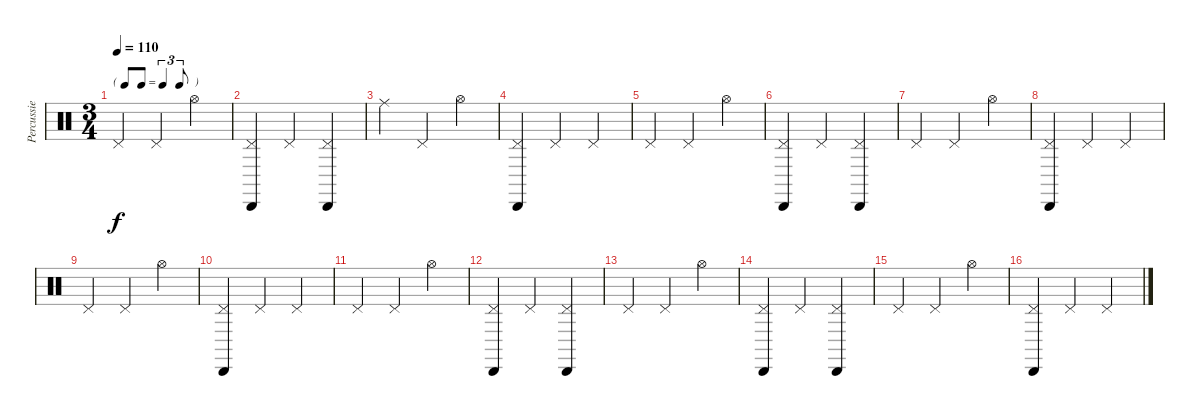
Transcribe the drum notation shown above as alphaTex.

\track ("Percussie" "Percussie") {instrument percussion}
\staff {score}
\articulation defaults
\ts (3 4)
\tf triplet8th
\tempo 110
\clef neutral
\ks c "Pedal Hi-Hat (hit)".4{dy f} "Pedal Hi-Hat (hit)".4 "Hi-Hat (open)".4
|
("Cabasa (hit)" "Pedal Hi-Hat (hit)").4 "Pedal Hi-Hat (hit)".4 ("Cabasa (hit)" "Pedal Hi-Hat (hit)").4 |
"Ride (middle)".4 "Pedal Hi-Hat (hit)".4 "Hi-Hat (open)".4 |
("Cabasa (hit)" "Pedal Hi-Hat (hit)").4 "Pedal Hi-Hat (hit)".4 "Pedal Hi-Hat (hit)".4 |
"Pedal Hi-Hat (hit)".4 "Pedal Hi-Hat (hit)".4 "Hi-Hat (open)".4 |
("Cabasa (hit)" "Pedal Hi-Hat (hit)").4 "Pedal Hi-Hat (hit)".4 ("Cabasa (hit)" "Pedal Hi-Hat (hit)").4 |
"Pedal Hi-Hat (hit)".4 "Pedal Hi-Hat (hit)".4 "Hi-Hat (open)".4 |
("Cabasa (hit)" "Pedal Hi-Hat (hit)").4 "Pedal Hi-Hat (hit)".4 "Pedal Hi-Hat (hit)".4 |
"Pedal Hi-Hat (hit)".4 "Pedal Hi-Hat (hit)".4 "Hi-Hat (open)".4 |
("Cabasa (hit)" "Pedal Hi-Hat (hit)").4 "Pedal Hi-Hat (hit)".4 "Pedal Hi-Hat (hit)".4 |
"Pedal Hi-Hat (hit)".4 "Pedal Hi-Hat (hit)".4 "Hi-Hat (open)".4 |
("Cabasa (hit)" "Pedal Hi-Hat (hit)").4 "Pedal Hi-Hat (hit)".4 ("Cabasa (hit)" "Pedal Hi-Hat (hit)").4 |
"Pedal Hi-Hat (hit)".4 "Pedal Hi-Hat (hit)".4 "Hi-Hat (open)".4 |
("Cabasa (hit)" "Pedal Hi-Hat (hit)").4 "Pedal Hi-Hat (hit)".4 ("Cabasa (hit)" "Pedal Hi-Hat (hit)").4 |
"Pedal Hi-Hat (hit)".4 "Pedal Hi-Hat (hit)".4 "Hi-Hat (open)".4 |
("Cabasa (hit)" "Pedal Hi-Hat (hit)").4 "Pedal Hi-Hat (hit)".4 "Pedal Hi-Hat (hit)".4
